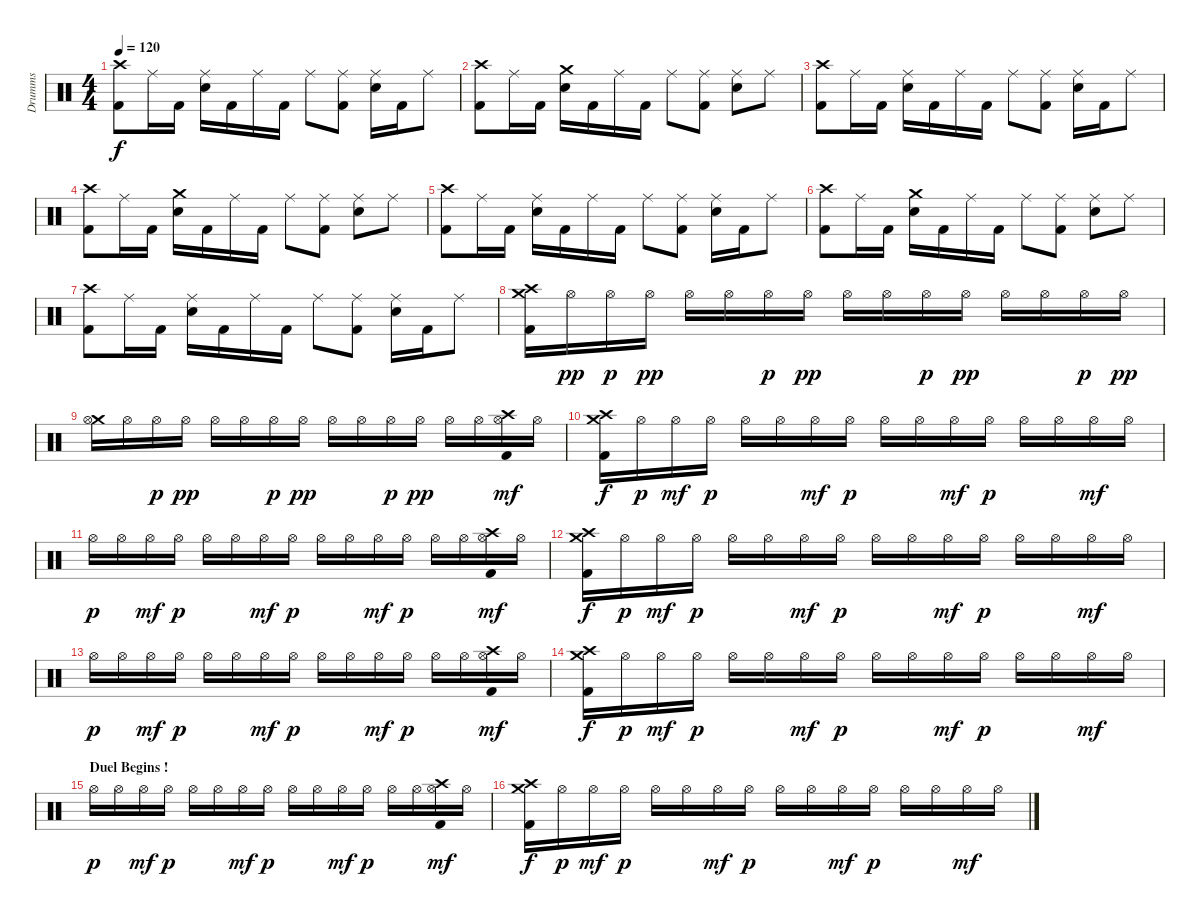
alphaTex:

\track ("Drumms" "Drumms") {instrument percussion}
\staff {score}
\articulation defaults
\ts (4 4)
\tempo 120
\clef neutral
\ks c
("Crash high (hit)" "Kick (hit) 2").8{dy f} "Ride (middle)".16 "Kick (hit) 2".16 ("Ride (middle)" "Electric Snare (hit)").16 "Kick (hit) 2".16 "Ride (middle)".16 "Kick (hit) 2".16 "Ride (middle)".8 ("Ride (middle)" "Kick (hit) 2").8 ("Ride (middle)" "Electric Snare (hit)").16 "Kick (hit) 2".16 "Ride (middle)".8 |
\section ("" "")
("Crash high (hit)" "Kick (hit) 2").8 "Ride (middle)".16 "Kick (hit) 2".16 ("Crash medium (hit)" "Electric Snare (hit)").16 "Kick (hit) 2".16 "Ride (middle)".16 "Kick (hit) 2".16 "Ride (middle)".8 ("Ride (middle)" "Kick (hit) 2").8 ("Ride (middle)" "Electric Snare (hit)").8 "Ride (middle)".8 |
("Crash high (hit)" "Kick (hit) 2").8 "Ride (middle)".16 "Kick (hit) 2".16 ("Ride (middle)" "Electric Snare (hit)").16 "Kick (hit) 2".16 "Ride (middle)".16 "Kick (hit) 2".16 "Ride (middle)".8 ("Ride (middle)" "Kick (hit) 2").8 ("Ride (middle)" "Electric Snare (hit)").16 "Kick (hit) 2".16 "Ride (middle)".8 |
("Crash high (hit)" "Kick (hit) 2").8 "Ride (middle)".16 "Kick (hit) 2".16 ("Crash medium (hit)" "Electric Snare (hit)").16 "Kick (hit) 2".16 "Ride (middle)".16 "Kick (hit) 2".16 "Ride (middle)".8 ("Ride (middle)" "Kick (hit) 2").8 ("Ride (middle)" "Electric Snare (hit)").8 "Ride (middle)".8 |
("Crash high (hit)" "Kick (hit) 2").8 "Ride (middle)".16 "Kick (hit) 2".16 ("Ride (middle)" "Electric Snare (hit)").16 "Kick (hit) 2".16 "Ride (middle)".16 "Kick (hit) 2".16 "Ride (middle)".8 ("Ride (middle)" "Kick (hit) 2").8 ("Ride (middle)" "Electric Snare (hit)").16 "Kick (hit) 2".16 "Ride (middle)".8 |
("Crash high (hit)" "Kick (hit) 2").8 "Ride (middle)".16 "Kick (hit) 2".16 ("Crash medium (hit)" "Electric Snare (hit)").16 "Kick (hit) 2".16 "Ride (middle)".16 "Kick (hit) 2".16 "Ride (middle)".8 ("Ride (middle)" "Kick (hit) 2").8 ("Ride (middle)" "Electric Snare (hit)").8 "Ride (middle)".8 |
("Crash high (hit)" "Kick (hit) 2").8 "Ride (middle)".16 "Kick (hit) 2".16 ("Ride (middle)" "Electric Snare (hit)").16 "Kick (hit) 2".16 "Ride (middle)".16 "Kick (hit) 2".16 "Ride (middle)".8 ("Ride (middle)" "Kick (hit) 2").8 ("Ride (middle)" "Electric Snare (hit)").16 "Kick (hit) 2".16 "Ride (middle)".8 |
("Crash high (hit)" "Crash medium (hit)" "Kick (hit) 2").16 "Hi-Hat (open)".16{dy pp} "Hi-Hat (open)".16{dy p} "Hi-Hat (open)".16{dy pp} "Hi-Hat (open)".16 "Hi-Hat (open)".16 "Hi-Hat (open)".16{dy p} "Hi-Hat (open)".16{dy pp} "Hi-Hat (open)".16 "Hi-Hat (open)".16 "Hi-Hat (open)".16{dy p} "Hi-Hat (open)".16{dy pp} "Hi-Hat (open)".16 "Hi-Hat (open)".16 "Hi-Hat (open)".16{dy p} "Hi-Hat (open)".16{dy pp} |
("Crash medium (hit)" "Hi-Hat (open)").16 "Hi-Hat (open)".16 "Hi-Hat (open)".16{dy p} "Hi-Hat (open)".16{dy pp} "Hi-Hat (open)".16 "Hi-Hat (open)".16 "Hi-Hat (open)".16{dy p} "Hi-Hat (open)".16{dy pp} "Hi-Hat (open)".16 "Hi-Hat (open)".16 "Hi-Hat (open)".16{dy p} "Hi-Hat (open)".16{dy pp} "Hi-Hat (open)".16 "Hi-Hat (open)".16 ("Crash high (hit)" "Hi-Hat (open)" "Kick (hit) 2").16{dy mf} "Hi-Hat (open)".16 |
\section ("" "")
("Crash high (hit)" "Crash medium (hit)" "Kick (hit) 2").16{dy f} "Hi-Hat (open)".16{dy p} "Hi-Hat (open)".16{dy mf} "Hi-Hat (open)".16{dy p} "Hi-Hat (open)".16 "Hi-Hat (open)".16 "Hi-Hat (open)".16{dy mf} "Hi-Hat (open)".16{dy p} "Hi-Hat (open)".16 "Hi-Hat (open)".16 "Hi-Hat (open)".16{dy mf} "Hi-Hat (open)".16{dy p} "Hi-Hat (open)".16 "Hi-Hat (open)".16 "Hi-Hat (open)".16{dy mf} "Hi-Hat (open)".16 |
"Hi-Hat (open)".16{dy p} "Hi-Hat (open)".16 "Hi-Hat (open)".16{dy mf} "Hi-Hat (open)".16{dy p} "Hi-Hat (open)".16 "Hi-Hat (open)".16 "Hi-Hat (open)".16{dy mf} "Hi-Hat (open)".16{dy p} "Hi-Hat (open)".16 "Hi-Hat (open)".16 "Hi-Hat (open)".16{dy mf} "Hi-Hat (open)".16{dy p} "Hi-Hat (open)".16 "Hi-Hat (open)".16 ("Crash high (hit)" "Hi-Hat (open)" "Kick (hit) 2").16{dy mf} "Hi-Hat (open)".16 |
("Crash high (hit)" "Crash medium (hit)" "Kick (hit) 2").16{dy f} "Hi-Hat (open)".16{dy p} "Hi-Hat (open)".16{dy mf} "Hi-Hat (open)".16{dy p} "Hi-Hat (open)".16 "Hi-Hat (open)".16 "Hi-Hat (open)".16{dy mf} "Hi-Hat (open)".16{dy p} "Hi-Hat (open)".16 "Hi-Hat (open)".16 "Hi-Hat (open)".16{dy mf} "Hi-Hat (open)".16{dy p} "Hi-Hat (open)".16 "Hi-Hat (open)".16 "Hi-Hat (open)".16{dy mf} "Hi-Hat (open)".16 |
"Hi-Hat (open)".16{dy p} "Hi-Hat (open)".16 "Hi-Hat (open)".16{dy mf} "Hi-Hat (open)".16{dy p} "Hi-Hat (open)".16 "Hi-Hat (open)".16 "Hi-Hat (open)".16{dy mf} "Hi-Hat (open)".16{dy p} "Hi-Hat (open)".16 "Hi-Hat (open)".16 "Hi-Hat (open)".16{dy mf} "Hi-Hat (open)".16{dy p} "Hi-Hat (open)".16 "Hi-Hat (open)".16 ("Crash high (hit)" "Hi-Hat (open)" "Kick (hit) 2").16{dy mf} "Hi-Hat (open)".16 |
("Crash high (hit)" "Crash medium (hit)" "Kick (hit) 2").16{dy f} "Hi-Hat (open)".16{dy p} "Hi-Hat (open)".16{dy mf} "Hi-Hat (open)".16{dy p} "Hi-Hat (open)".16 "Hi-Hat (open)".16 "Hi-Hat (open)".16{dy mf} "Hi-Hat (open)".16{dy p} "Hi-Hat (open)".16 "Hi-Hat (open)".16 "Hi-Hat (open)".16{dy mf} "Hi-Hat (open)".16{dy p} "Hi-Hat (open)".16 "Hi-Hat (open)".16 "Hi-Hat (open)".16{dy mf} "Hi-Hat (open)".16 |
\section ("" "Duel Begins !")
"Hi-Hat (open)".16{dy p} "Hi-Hat (open)".16 "Hi-Hat (open)".16{dy mf} "Hi-Hat (open)".16{dy p} "Hi-Hat (open)".16 "Hi-Hat (open)".16 "Hi-Hat (open)".16{dy mf} "Hi-Hat (open)".16{dy p} "Hi-Hat (open)".16 "Hi-Hat (open)".16 "Hi-Hat (open)".16{dy mf} "Hi-Hat (open)".16{dy p} "Hi-Hat (open)".16 "Hi-Hat (open)".16 ("Crash high (hit)" "Hi-Hat (open)" "Kick (hit) 2").16{dy mf} "Hi-Hat (open)".16 |
("Crash high (hit)" "Crash medium (hit)" "Kick (hit) 2").16{dy f} "Hi-Hat (open)".16{dy p} "Hi-Hat (open)".16{dy mf} "Hi-Hat (open)".16{dy p} "Hi-Hat (open)".16 "Hi-Hat (open)".16 "Hi-Hat (open)".16{dy mf} "Hi-Hat (open)".16{dy p} "Hi-Hat (open)".16 "Hi-Hat (open)".16 "Hi-Hat (open)".16{dy mf} "Hi-Hat (open)".16{dy p} "Hi-Hat (open)".16 "Hi-Hat (open)".16 "Hi-Hat (open)".16{dy mf} "Hi-Hat (open)".16
